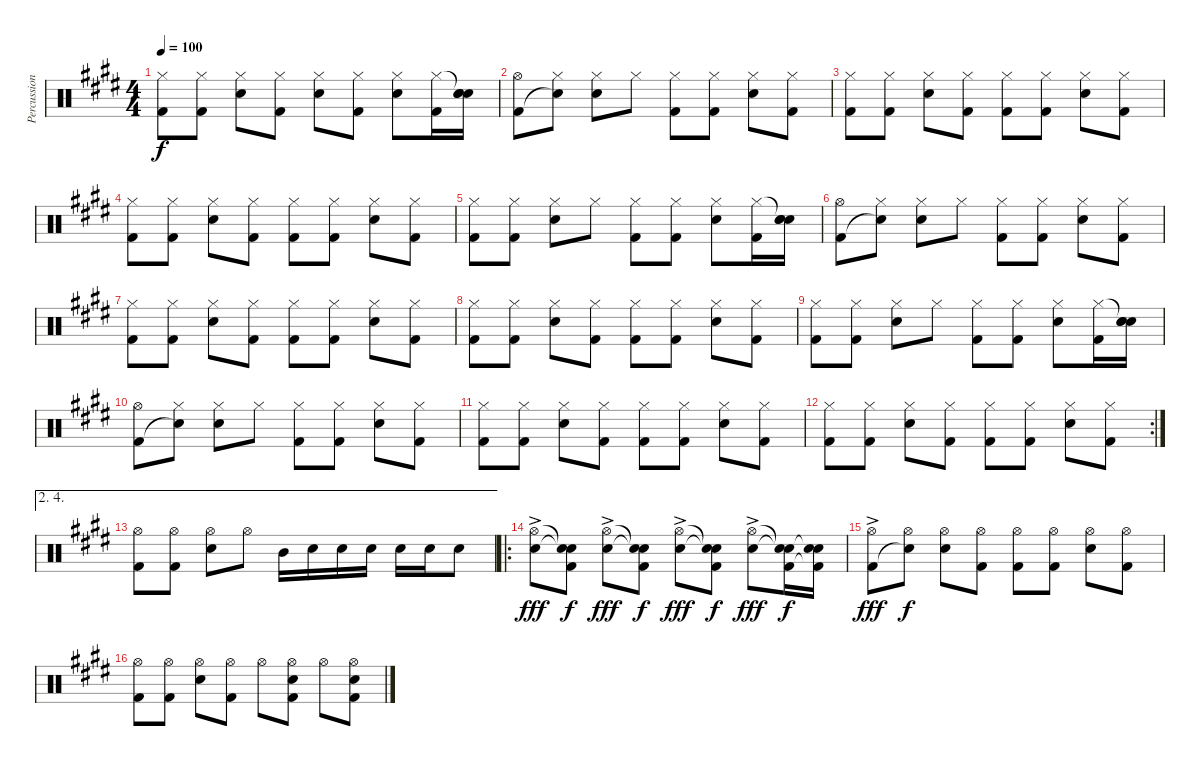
\track ("Percussion" "Percussion") {instrument percussion}
\staff {score}
\articulation defaults
\ts (4 4)
\tempo 100
\clef neutral
\ks e
("Hi-Hat (closed)" "Kick (hit) 2").8{dy f} ("Hi-Hat (closed)" "Kick (hit) 2").8 ("Hi-Hat (closed)" "Snare (hit) 2").8 ("Hi-Hat (closed)" "Kick (hit) 2").8 ("Hi-Hat (closed)" "Snare (hit) 2").8 ("Hi-Hat (closed)" "Kick (hit) 2").8 ("Hi-Hat (closed)" "Snare (hit) 2").8 ("Hi-Hat (closed)" "Kick (hit) 2").16 ("Snare (hit)"{t} "Snare (hit) 2" "Snare (hit)").16 |
("Hi-Hat (open)" "Kick (hit) 2").8 ("Hi-Hat (closed)" "Snare (hit)"{t}).8 ("Hi-Hat (closed)" "Snare (hit) 2").8 "Hi-Hat (closed)".8 ("Hi-Hat (closed)" "Kick (hit) 2").8 ("Hi-Hat (closed)" "Kick (hit) 2").8 ("Hi-Hat (closed)" "Snare (hit) 2").8 ("Hi-Hat (closed)" "Kick (hit) 2").8 |
("Hi-Hat (closed)" "Kick (hit) 2").8 ("Hi-Hat (closed)" "Kick (hit) 2").8 ("Hi-Hat (closed)" "Snare (hit) 2").8 ("Hi-Hat (closed)" "Kick (hit) 2").8 ("Hi-Hat (closed)" "Kick (hit) 2").8 ("Hi-Hat (closed)" "Kick (hit) 2").8 ("Hi-Hat (closed)" "Snare (hit) 2").8 ("Hi-Hat (closed)" "Kick (hit) 2").8 |
("Hi-Hat (closed)" "Kick (hit) 2").8 ("Hi-Hat (closed)" "Kick (hit) 2").8 ("Hi-Hat (closed)" "Snare (hit) 2").8 ("Hi-Hat (closed)" "Kick (hit) 2").8 ("Hi-Hat (closed)" "Kick (hit) 2").8 ("Hi-Hat (closed)" "Kick (hit) 2").8 ("Hi-Hat (closed)" "Snare (hit) 2").8 ("Hi-Hat (closed)" "Kick (hit) 2").8 |
("Hi-Hat (closed)" "Kick (hit) 2").8 ("Hi-Hat (closed)" "Kick (hit) 2").8 ("Hi-Hat (closed)" "Snare (hit) 2").8 "Hi-Hat (closed)".8 ("Hi-Hat (closed)" "Kick (hit) 2").8 ("Hi-Hat (closed)" "Kick (hit) 2").8 ("Hi-Hat (closed)" "Snare (hit) 2").8 ("Hi-Hat (closed)" "Kick (hit) 2").16 ("Snare (hit)"{t} "Snare (hit) 2" "Snare (hit)").16 |
("Hi-Hat (open)" "Kick (hit) 2").8 ("Hi-Hat (closed)" "Snare (hit)"{t}).8 ("Hi-Hat (closed)" "Snare (hit) 2").8 "Hi-Hat (closed)".8 ("Hi-Hat (closed)" "Kick (hit) 2").8 ("Hi-Hat (closed)" "Kick (hit) 2").8 ("Hi-Hat (closed)" "Snare (hit) 2").8 ("Hi-Hat (closed)" "Kick (hit) 2").8 |
("Hi-Hat (closed)" "Kick (hit) 2").8 ("Hi-Hat (closed)" "Kick (hit) 2").8 ("Hi-Hat (closed)" "Snare (hit) 2").8 ("Hi-Hat (closed)" "Kick (hit) 2").8 ("Hi-Hat (closed)" "Kick (hit) 2").8 ("Hi-Hat (closed)" "Kick (hit) 2").8 ("Hi-Hat (closed)" "Snare (hit) 2").8 ("Hi-Hat (closed)" "Kick (hit) 2").8 |
("Hi-Hat (closed)" "Kick (hit) 2").8 ("Hi-Hat (closed)" "Kick (hit) 2").8 ("Hi-Hat (closed)" "Snare (hit) 2").8 ("Hi-Hat (closed)" "Kick (hit) 2").8 ("Hi-Hat (closed)" "Kick (hit) 2").8 ("Hi-Hat (closed)" "Kick (hit) 2").8 ("Hi-Hat (closed)" "Snare (hit) 2").8 ("Hi-Hat (closed)" "Kick (hit) 2").8 |
("Hi-Hat (closed)" "Kick (hit) 2").8 ("Hi-Hat (closed)" "Kick (hit) 2").8 ("Hi-Hat (closed)" "Snare (hit) 2").8 "Hi-Hat (closed)".8 ("Hi-Hat (closed)" "Kick (hit) 2").8 ("Hi-Hat (closed)" "Kick (hit) 2").8 ("Hi-Hat (closed)" "Snare (hit) 2").8 ("Hi-Hat (closed)" "Kick (hit) 2").16 ("Snare (hit)"{t} "Snare (hit) 2" "Snare (hit)").16 |
("Hi-Hat (open)" "Kick (hit) 2").8 ("Hi-Hat (closed)" "Snare (hit)"{t}).8 ("Hi-Hat (closed)" "Snare (hit) 2").8 "Hi-Hat (closed)".8 ("Hi-Hat (closed)" "Kick (hit) 2").8 ("Hi-Hat (closed)" "Kick (hit) 2").8 ("Hi-Hat (closed)" "Snare (hit) 2").8 ("Hi-Hat (closed)" "Kick (hit) 2").8 |
("Hi-Hat (closed)" "Kick (hit) 2").8 ("Hi-Hat (closed)" "Kick (hit) 2").8 ("Hi-Hat (closed)" "Snare (hit) 2").8 ("Hi-Hat (closed)" "Kick (hit) 2").8 ("Hi-Hat (closed)" "Kick (hit) 2").8 ("Hi-Hat (closed)" "Kick (hit) 2").8 ("Hi-Hat (closed)" "Snare (hit) 2").8 ("Hi-Hat (closed)" "Kick (hit) 2").8 |
\rc 2
("Hi-Hat (closed)" "Kick (hit) 2").8 ("Hi-Hat (closed)" "Kick (hit) 2").8 ("Hi-Hat (closed)" "Snare (hit) 2").8 ("Hi-Hat (closed)" "Kick (hit) 2").8 ("Hi-Hat (closed)" "Kick (hit) 2").8 ("Hi-Hat (closed)" "Kick (hit) 2").8 ("Hi-Hat (closed)" "Snare (hit) 2").8 ("Hi-Hat (closed)" "Kick (hit) 2").8 |
\ae (2 4)
("Hi-Hat (open)" "Kick (hit) 2").8 ("Hi-Hat (open)" "Kick (hit) 2").8 ("Hi-Hat (open)" "Snare (hit) 2").8 "Hi-Hat (open)".8 "Mid Tom (hit)".16 "Snare (hit) 2".16 "Snare (hit) 2".16 "Snare (hit) 2".16 "Snare (hit) 2".16 "Snare (hit) 2".16 "Snare (hit) 2".8 |
\ro
("Hi-Hat (open)"{ac} "Snare (hit) 2"{ac}).8{dy fff} ("Snare (hit)"{t} "Snare (hit)"{t} "Kick (hit) 2").8{dy f} ("Hi-Hat (open)"{ac} "Snare (hit) 2"{ac}).8{dy fff} ("Snare (hit)"{t} "Snare (hit)"{t} "Kick (hit) 2").8{dy f} ("Hi-Hat (open)"{ac} "Snare (hit) 2"{ac}).8{dy fff} ("Snare (hit)"{t} "Snare (hit)"{t} "Kick (hit) 2").8{dy f} ("Hi-Hat (open)"{ac} "Snare (hit) 2"{ac}).8{dy fff} ("Snare (hit)"{t} "Snare (hit)"{t} "Kick (hit) 2").16{dy f} ("Snare (hit)"{t} "Snare (hit) 2" "Kick (hit) 2"{t}).16 |
("Hi-Hat (open)"{ac} "Kick (hit) 2").8{dy fff} ("Hi-Hat (open)" "Snare (hit)"{t}).8{dy f} ("Hi-Hat (open)" "Snare (hit) 2").8 ("Hi-Hat (open)" "Kick (hit) 2").8 ("Hi-Hat (open)" "Kick (hit) 2").8 ("Hi-Hat (open)" "Kick (hit) 2").8 ("Hi-Hat (open)" "Snare (hit) 2").8 ("Hi-Hat (open)" "Kick (hit) 2").8 |
("Hi-Hat (open)" "Kick (hit) 2").8 ("Hi-Hat (open)" "Kick (hit) 2").8 ("Hi-Hat (open)" "Snare (hit) 2").8 ("Hi-Hat (open)" "Kick (hit) 2").8 "Hi-Hat (open)".8 ("Hi-Hat (open)" "Snare (hit) 2" "Kick (hit) 2").8 "Hi-Hat (open)".8 ("Hi-Hat (open)" "Snare (hit) 2" "Kick (hit) 2").8
